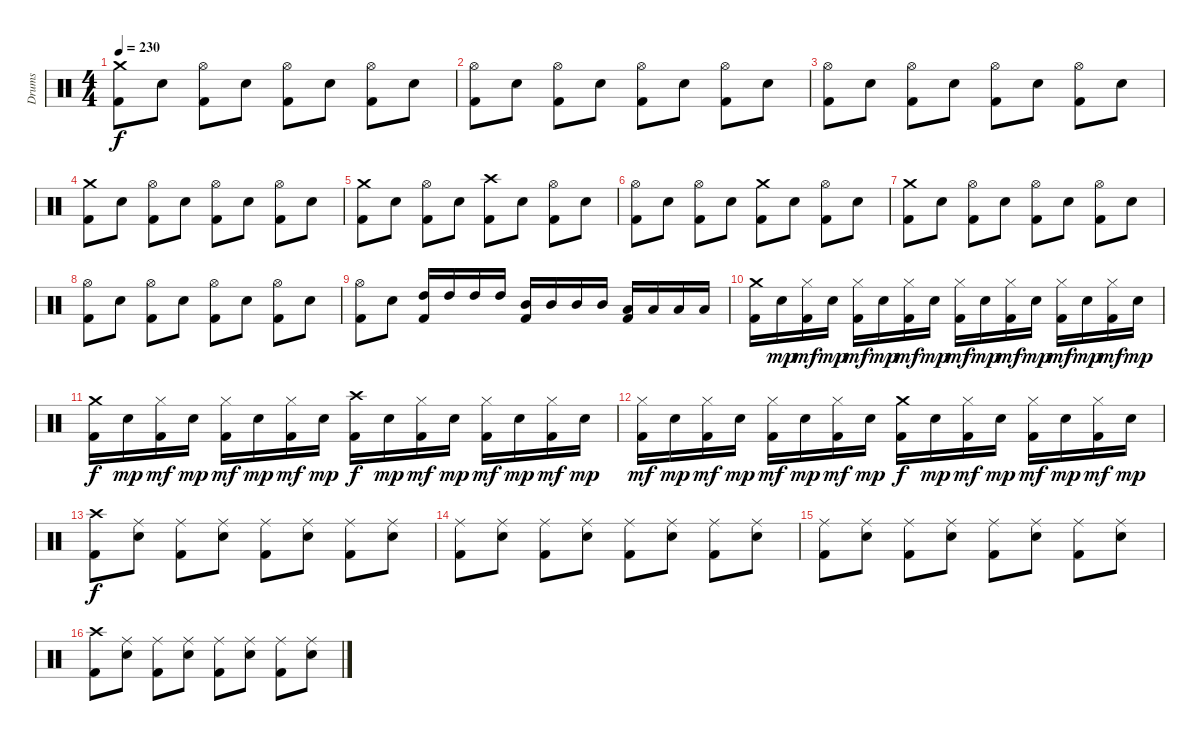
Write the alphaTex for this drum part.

\track ("Drums" "Drums") {instrument percussion}
\staff {score}
\articulation defaults
\ts (4 4)
\tempo 230
\clef neutral
\ks c
("Crash medium (hit)" "Kick (hit) 2").8{dy f} "Electric Snare (hit)".8 ("Hi-Hat (open)" "Kick (hit) 2").8 "Electric Snare (hit)".8 ("Hi-Hat (open)" "Kick (hit) 2").8 "Electric Snare (hit)".8 ("Hi-Hat (open)" "Kick (hit) 2").8 "Electric Snare (hit)".8 |
("Hi-Hat (open)" "Kick (hit) 2").8 "Electric Snare (hit)".8 ("Hi-Hat (open)" "Kick (hit) 2").8 "Electric Snare (hit)".8 ("Hi-Hat (open)" "Kick (hit) 2").8 "Electric Snare (hit)".8 ("Hi-Hat (open)" "Kick (hit) 2").8 "Electric Snare (hit)".8 |
("Hi-Hat (open)" "Kick (hit) 2").8 "Electric Snare (hit)".8 ("Hi-Hat (open)" "Kick (hit) 2").8 "Electric Snare (hit)".8 ("Hi-Hat (open)" "Kick (hit) 2").8 "Electric Snare (hit)".8 ("Hi-Hat (open)" "Kick (hit) 2").8 "Electric Snare (hit)".8 |
("Crash medium (hit)" "Kick (hit) 2").8 "Electric Snare (hit)".8 ("Hi-Hat (open)" "Kick (hit) 2").8 "Electric Snare (hit)".8 ("Hi-Hat (open)" "Kick (hit) 2").8 "Electric Snare (hit)".8 ("Hi-Hat (open)" "Kick (hit) 2").8 "Electric Snare (hit)".8 |
("Crash medium (hit)" "Kick (hit) 2").8 "Electric Snare (hit)".8 ("Hi-Hat (open)" "Kick (hit) 2").8 "Electric Snare (hit)".8 ("Crash high (hit)" "Kick (hit) 2").8 "Electric Snare (hit)".8 ("Hi-Hat (open)" "Kick (hit) 2").8 "Electric Snare (hit)".8 |
("Hi-Hat (open)" "Kick (hit) 2").8 "Electric Snare (hit)".8 ("Hi-Hat (open)" "Kick (hit) 2").8 "Electric Snare (hit)".8 ("Crash medium (hit)" "Kick (hit) 2").8 "Electric Snare (hit)".8 ("Hi-Hat (open)" "Kick (hit) 2").8 "Electric Snare (hit)".8 |
("Crash medium (hit)" "Kick (hit) 2").8 "Electric Snare (hit)".8 ("Hi-Hat (open)" "Kick (hit) 2").8 "Electric Snare (hit)".8 ("Hi-Hat (open)" "Kick (hit) 2").8 "Electric Snare (hit)".8 ("Hi-Hat (open)" "Kick (hit) 2").8 "Electric Snare (hit)".8 |
("Hi-Hat (open)" "Kick (hit) 2").8 "Electric Snare (hit)".8 ("Hi-Hat (open)" "Kick (hit) 2").8 "Electric Snare (hit)".8 ("Hi-Hat (open)" "Kick (hit) 2").8 "Electric Snare (hit)".8 ("Hi-Hat (open)" "Kick (hit) 2").8 "Electric Snare (hit)".8 |
("Hi-Hat (open)" "Kick (hit) 2").8 "Electric Snare (hit)".8 ("High Tom (hit)" "Kick (hit) 2").16 "High Tom (hit)".16 "High Tom (hit)".16 "High Tom (hit)".16 ("Mid Tom (hit)" "Kick (hit) 2").16 "Mid Tom (hit)".16 "Mid Tom (hit)".16 "Mid Tom (hit)".16 ("Low Tom (hit)" "Kick (hit) 2").16 "Low Tom (hit)".16 "Low Tom (hit)".16 "Low Tom (hit)".16 |
("Crash medium (hit)" "Kick (hit) 2").16 "Electric Snare (hit)".16{dy mp} ("Hi-Hat (closed)" "Kick (hit) 2").16{dy mf} "Electric Snare (hit)".16{dy mp} ("Hi-Hat (closed)" "Kick (hit) 2").16{dy mf} "Electric Snare (hit)".16{dy mp} ("Hi-Hat (closed)" "Kick (hit) 2").16{dy mf} "Electric Snare (hit)".16{dy mp} ("Hi-Hat (closed)" "Kick (hit) 2").16{dy mf} "Electric Snare (hit)".16{dy mp} ("Hi-Hat (closed)" "Kick (hit) 2").16{dy mf} "Electric Snare (hit)".16{dy mp} ("Hi-Hat (closed)" "Kick (hit) 2").16{dy mf} "Electric Snare (hit)".16{dy mp} ("Hi-Hat (closed)" "Kick (hit) 2").16{dy mf} "Electric Snare (hit)".16{dy mp} |
("Crash medium (hit)" "Kick (hit) 2").16{dy f} "Electric Snare (hit)".16{dy mp} ("Hi-Hat (closed)" "Kick (hit) 2").16{dy mf} "Electric Snare (hit)".16{dy mp} ("Hi-Hat (closed)" "Kick (hit) 2").16{dy mf} "Electric Snare (hit)".16{dy mp} ("Hi-Hat (closed)" "Kick (hit) 2").16{dy mf} "Electric Snare (hit)".16{dy mp} ("Crash high (hit)" "Kick (hit) 2").16{dy f} "Electric Snare (hit)".16{dy mp} ("Hi-Hat (closed)" "Kick (hit) 2").16{dy mf} "Electric Snare (hit)".16{dy mp} ("Hi-Hat (closed)" "Kick (hit) 2").16{dy mf} "Electric Snare (hit)".16{dy mp} ("Hi-Hat (closed)" "Kick (hit) 2").16{dy mf} "Electric Snare (hit)".16{dy mp} |
("Hi-Hat (closed)" "Kick (hit) 2").16{dy mf} "Electric Snare (hit)".16{dy mp} ("Hi-Hat (closed)" "Kick (hit) 2").16{dy mf} "Electric Snare (hit)".16{dy mp} ("Hi-Hat (closed)" "Kick (hit) 2").16{dy mf} "Electric Snare (hit)".16{dy mp} ("Hi-Hat (closed)" "Kick (hit) 2").16{dy mf} "Electric Snare (hit)".16{dy mp} ("Crash medium (hit)" "Kick (hit) 2").16{dy f} "Electric Snare (hit)".16{dy mp} ("Hi-Hat (closed)" "Kick (hit) 2").16{dy mf} "Electric Snare (hit)".16{dy mp} ("Hi-Hat (closed)" "Kick (hit) 2").16{dy mf} "Electric Snare (hit)".16{dy mp} ("Hi-Hat (closed)" "Kick (hit) 2").16{dy mf} "Electric Snare (hit)".16{dy mp} |
("Crash high (hit)" "Kick (hit) 2").8{dy f} ("Ride (middle)" "Electric Snare (hit)").8 ("Ride (middle)" "Kick (hit) 2").8 ("Ride (middle)" "Electric Snare (hit)").8 ("Ride (middle)" "Kick (hit) 2").8 ("Ride (middle)" "Electric Snare (hit)").8 ("Ride (middle)" "Kick (hit) 2").8 ("Ride (middle)" "Electric Snare (hit)").8 |
("Ride (middle)" "Kick (hit) 2").8 ("Ride (middle)" "Electric Snare (hit)").8 ("Ride (middle)" "Kick (hit) 2").8 ("Ride (middle)" "Electric Snare (hit)").8 ("Ride (middle)" "Kick (hit) 2").8 ("Ride (middle)" "Electric Snare (hit)").8 ("Ride (middle)" "Kick (hit) 2").8 ("Ride (middle)" "Electric Snare (hit)").8 |
("Ride (middle)" "Kick (hit) 2").8 ("Ride (middle)" "Electric Snare (hit)").8 ("Ride (middle)" "Kick (hit) 2").8 ("Ride (middle)" "Electric Snare (hit)").8 ("Ride (middle)" "Kick (hit) 2").8 ("Ride (middle)" "Electric Snare (hit)").8 ("Ride (middle)" "Kick (hit) 2").8 ("Ride (middle)" "Electric Snare (hit)").8 |
("Crash high (hit)" "Kick (hit) 2").8 ("Ride (middle)" "Electric Snare (hit)").8 ("Ride (middle)" "Kick (hit) 2").8 ("Ride (middle)" "Electric Snare (hit)").8 ("Ride (middle)" "Kick (hit) 2").8 ("Ride (middle)" "Electric Snare (hit)").8 ("Ride (middle)" "Kick (hit) 2").8 ("Ride (middle)" "Electric Snare (hit)").8
